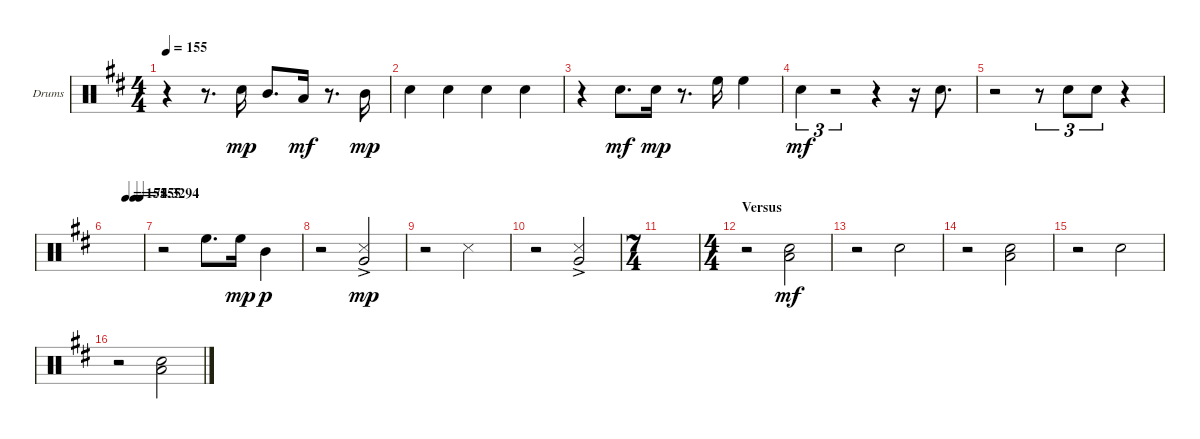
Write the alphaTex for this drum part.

\bracketExtendMode groupsimilarinstruments
\firstSystemTrackNameOrientation horizontal
\otherSystemsTrackNameOrientation horizontal
\track ("Drums" "Drums") {instrument percussion}
\staff {score}
\articulation defaults
\ts (4 4)
\tempo 155
\clef neutral
\ks d
r.4{dy mf} r.8{d} "Snare (hit) 2".16{dy mp} "Mid Tom (hit)".8{d} "Low Tom (hit)".16{dy mf} r.8{d} "Mid Tom (hit)".16{dy mp} |
"Snare (hit) 2".4 "Snare (hit) 2".4 "Snare (hit) 2".4 "Snare (hit) 2".4 |
r.4 "Snare (hit) 2".8{d dy mf} "Snare (hit) 2".16{dy mp} r.8{d} "High Floor Tom (hit)".16 "High Floor Tom (hit)".4 |
"Snare (hit) 2".4{tu (3 2) dy mf} r.2{tu (3 2)} r.4 r.16 "Snare (hit) 2".8{d} |
r.2 r.8{tu (3 2)} "Snare (hit) 2".8{tu (3 2)} "Snare (hit) 2".8{tu (3 2)} r.4 |
\tempo (155 0.53125)
\tempo (74.3294 0.75)
\tempo (155 0.925)
|
r.2 "High Floor Tom (hit)".8{d} "High Floor Tom (hit)".16{dy mp} "Mid Tom (hit)".4{dy p} |
r.2 ("Snare (side stick) 3" "Very Low Tom (hit)"{ac}).2{dy mp} |
r.2 "Snare (side stick) 3".2 |
r.2 ("Snare (side stick) 3" "Very Low Tom (hit)"{ac}).2 |
\ts (7 4)
|
\ts (4 4)
\section ("" "Versus")
r.2 ("Snare (hit) 2" "Low Tom (hit)").2{dy mf} |
r.2 "Snare (hit) 2".2 |
r.2 ("Snare (hit) 2" "Low Tom (hit)").2 |
r.2 "Snare (hit) 2".2 |
r.2 ("Snare (hit) 2" "Low Tom (hit)").2
